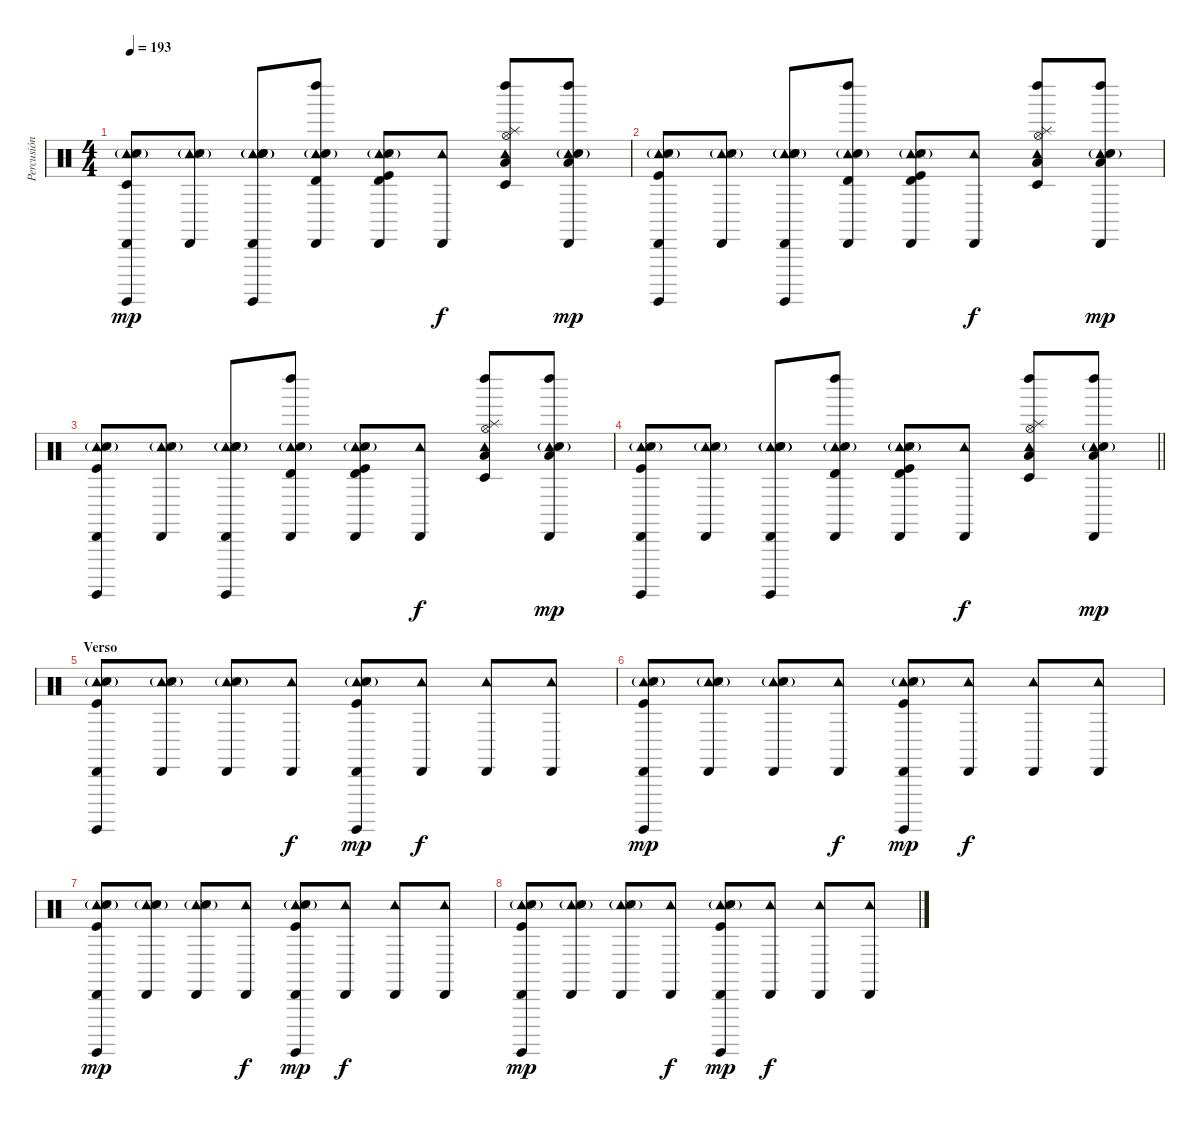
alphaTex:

\track ("Percusión" "Percusión") {instrument percussion}
\staff {score}
\articulation defaults
\ts (4 4)
\tempo 193
\clef neutral
\ks c
("Cabasa (hit)" "Tambourine (hit)" "Hand Clap (hit)"{g} "Metronome (hit)" "Surdo (hit)" "Timbale low (hit)").8{dy mp} ("Cabasa (hit)" "Tambourine (hit)" "Hand Clap (hit)"{g} "Metronome (hit)").8 ("Cabasa (hit)" "Tambourine (hit)" "Hand Clap (hit)"{g} "Metronome (hit)" "Surdo (hit)" "Electric Snare (hit)"{g}).8 ("Cabasa (hit)" "Tambourine (hit)" "Left Maraca (hit)" "Timbale high (hit)" "Electric Snare (hit)"{g}).8 ("Cabasa (hit)" "Tambourine (hit)" "Hand Clap (hit)"{g} "Metronome (hit)" "Timbale high (hit)" "Kick (hit)").8 ("Cabasa (hit)" "Tambourine (hit)").8{dy f} ("Hi-Hat (open)" "Tambourine (hit)" "Left Maraca (hit)" "Splash (hit)" "Low Tom (hit)" "Timbale low (hit)").8 ("Cabasa (hit)" "Tambourine (hit)" "Left Maraca (hit)" "Low Tom (hit)" "Electric Snare (hit)"{g}).8{dy mp} |
("Cabasa (hit)" "Tambourine (hit)" "Hand Clap (hit)"{g} "Metronome (hit)" "Surdo (hit)" "Kick (hit)").8 ("Cabasa (hit)" "Tambourine (hit)" "Hand Clap (hit)"{g} "Metronome (hit)").8 ("Cabasa (hit)" "Tambourine (hit)" "Hand Clap (hit)"{g} "Metronome (hit)" "Surdo (hit)" "Electric Snare (hit)"{g}).8 ("Cabasa (hit)" "Tambourine (hit)" "Left Maraca (hit)" "Timbale high (hit)" "Electric Snare (hit)"{g}).8 ("Cabasa (hit)" "Tambourine (hit)" "Hand Clap (hit)"{g} "Metronome (hit)" "Timbale high (hit)" "Kick (hit)").8 ("Cabasa (hit)" "Tambourine (hit)").8{dy f} ("Hi-Hat (open)" "Tambourine (hit)" "Left Maraca (hit)" "Splash (hit)" "Low Tom (hit)" "Timbale low (hit)").8 ("Cabasa (hit)" "Tambourine (hit)" "Left Maraca (hit)" "Low Tom (hit)" "Electric Snare (hit)"{g}).8{dy mp} |
("Cabasa (hit)" "Tambourine (hit)" "Hand Clap (hit)"{g} "Metronome (hit)" "Surdo (hit)" "Kick (hit)").8 ("Cabasa (hit)" "Tambourine (hit)" "Hand Clap (hit)"{g} "Metronome (hit)").8 ("Cabasa (hit)" "Tambourine (hit)" "Hand Clap (hit)"{g} "Metronome (hit)" "Surdo (hit)" "Electric Snare (hit)"{g}).8 ("Cabasa (hit)" "Tambourine (hit)" "Left Maraca (hit)" "Timbale high (hit)" "Electric Snare (hit)"{g}).8 ("Cabasa (hit)" "Tambourine (hit)" "Hand Clap (hit)"{g} "Metronome (hit)" "Timbale high (hit)" "Kick (hit)").8 ("Cabasa (hit)" "Tambourine (hit)").8{dy f} ("Hi-Hat (open)" "Tambourine (hit)" "Left Maraca (hit)" "Splash (hit)" "Low Tom (hit)" "Timbale low (hit)").8 ("Cabasa (hit)" "Tambourine (hit)" "Left Maraca (hit)" "Low Tom (hit)" "Electric Snare (hit)"{g}).8{dy mp} |
\barLineRight lightlight
("Cabasa (hit)" "Tambourine (hit)" "Hand Clap (hit)"{g} "Metronome (hit)" "Surdo (hit)" "Kick (hit)").8 ("Cabasa (hit)" "Tambourine (hit)" "Hand Clap (hit)"{g} "Metronome (hit)").8 ("Cabasa (hit)" "Tambourine (hit)" "Hand Clap (hit)"{g} "Metronome (hit)" "Surdo (hit)" "Electric Snare (hit)"{g}).8 ("Cabasa (hit)" "Tambourine (hit)" "Left Maraca (hit)" "Timbale high (hit)" "Electric Snare (hit)"{g}).8 ("Cabasa (hit)" "Tambourine (hit)" "Hand Clap (hit)"{g} "Metronome (hit)" "Timbale high (hit)" "Kick (hit)").8 ("Cabasa (hit)" "Tambourine (hit)").8{dy f} ("Hi-Hat (open)" "Tambourine (hit)" "Left Maraca (hit)" "Splash (hit)" "Low Tom (hit)" "Timbale low (hit)").8 ("Cabasa (hit)" "Tambourine (hit)" "Left Maraca (hit)" "Low Tom (hit)" "Electric Snare (hit)"{g}).8{dy mp} |
\section ("" "Verso")
("Cabasa (hit)" "Tambourine (hit)" "Hand Clap (hit)"{g} "Metronome (hit)" "Surdo (hit)" "Kick (hit)").8 ("Cabasa (hit)" "Tambourine (hit)" "Hand Clap (hit)"{g} "Metronome (hit)").8 ("Cabasa (hit)" "Tambourine (hit)" "Hand Clap (hit)"{g} "Metronome (hit)").8 ("Cabasa (hit)" "Tambourine (hit)").8{dy f} ("Cabasa (hit)" "Tambourine (hit)" "Hand Clap (hit)"{g} "Metronome (hit)" "Surdo (hit)" "Kick (hit)").8{dy mp} ("Cabasa (hit)" "Tambourine (hit)").8{dy f} ("Cabasa (hit)" "Tambourine (hit)").8 ("Cabasa (hit)" "Tambourine (hit)").8 |
("Cabasa (hit)" "Tambourine (hit)" "Hand Clap (hit)"{g} "Metronome (hit)" "Surdo (hit)" "Kick (hit)").8{dy mp} ("Cabasa (hit)" "Tambourine (hit)" "Hand Clap (hit)"{g} "Metronome (hit)").8 ("Cabasa (hit)" "Tambourine (hit)" "Hand Clap (hit)"{g} "Metronome (hit)").8 ("Cabasa (hit)" "Tambourine (hit)").8{dy f} ("Cabasa (hit)" "Tambourine (hit)" "Hand Clap (hit)"{g} "Metronome (hit)" "Surdo (hit)" "Kick (hit)").8{dy mp} ("Cabasa (hit)" "Tambourine (hit)").8{dy f} ("Cabasa (hit)" "Tambourine (hit)").8 ("Cabasa (hit)" "Tambourine (hit)").8 |
("Cabasa (hit)" "Tambourine (hit)" "Hand Clap (hit)"{g} "Metronome (hit)" "Surdo (hit)" "Kick (hit)").8{dy mp} ("Cabasa (hit)" "Tambourine (hit)" "Hand Clap (hit)"{g} "Metronome (hit)").8 ("Cabasa (hit)" "Tambourine (hit)" "Hand Clap (hit)"{g} "Metronome (hit)").8 ("Cabasa (hit)" "Tambourine (hit)").8{dy f} ("Cabasa (hit)" "Tambourine (hit)" "Hand Clap (hit)"{g} "Metronome (hit)" "Surdo (hit)" "Kick (hit)").8{dy mp} ("Cabasa (hit)" "Tambourine (hit)").8{dy f} ("Cabasa (hit)" "Tambourine (hit)").8 ("Cabasa (hit)" "Tambourine (hit)").8 |
("Cabasa (hit)" "Tambourine (hit)" "Hand Clap (hit)"{g} "Metronome (hit)" "Surdo (hit)" "Kick (hit)").8{dy mp} ("Cabasa (hit)" "Tambourine (hit)" "Hand Clap (hit)"{g} "Metronome (hit)").8 ("Cabasa (hit)" "Tambourine (hit)" "Hand Clap (hit)"{g} "Metronome (hit)").8 ("Cabasa (hit)" "Tambourine (hit)").8{dy f} ("Cabasa (hit)" "Tambourine (hit)" "Hand Clap (hit)"{g} "Metronome (hit)" "Surdo (hit)" "Kick (hit)").8{dy mp} ("Cabasa (hit)" "Tambourine (hit)").8{dy f} ("Cabasa (hit)" "Tambourine (hit)").8 ("Cabasa (hit)" "Tambourine (hit)").8
